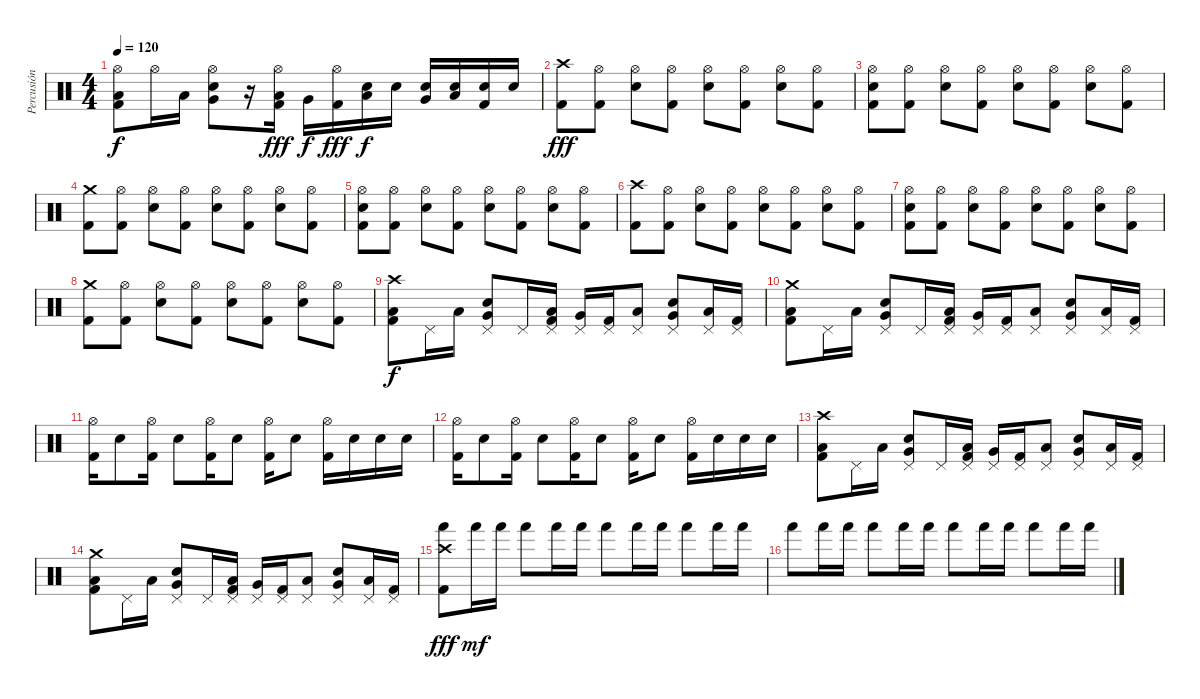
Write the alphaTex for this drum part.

\track ("Percusión" "Percusión") {instrument percussion}
\staff {score}
\articulation defaults
\ts (4 4)
\tempo 120
\clef neutral
\ks c
("Hi-Hat (open)" "Low Floor Tom (hit)" "Kick (hit) 2").8{dy f} "Hi-Hat (open)".16 "Low Floor Tom (hit)".16 ("Hi-Hat (open)" "Electric Snare (hit)" "Very Low Tom (hit)").8 r.16 ("Hi-Hat (open)" "Low Floor Tom (hit)" "Kick (hit) 2").16{dy fff} "Very Low Tom (hit)".16{dy f} ("Hi-Hat (open)" "Kick (hit) 2").16{dy fff} ("Electric Snare (hit)" "Low Floor Tom (hit)").16{dy f} "Electric Snare (hit)".16 ("Electric Snare (hit)" "Very Low Tom (hit)").16 ("Electric Snare (hit)" "Low Floor Tom (hit)").16 ("Electric Snare (hit)" "Kick (hit) 2").16 "Electric Snare (hit)".16 |
("Crash high (hit)" "Kick (hit) 2").8{dy fff} ("Hi-Hat (open)" "Kick (hit) 2").8 ("Hi-Hat (open)" "Electric Snare (hit)").8 ("Hi-Hat (open)" "Kick (hit) 2").8 ("Hi-Hat (open)" "Electric Snare (hit)").8 ("Hi-Hat (open)" "Kick (hit) 2").8 ("Hi-Hat (open)" "Electric Snare (hit)").8 ("Hi-Hat (open)" "Kick (hit) 2").8 |
("Hi-Hat (open)" "Electric Snare (hit)" "Kick (hit) 2").8 ("Hi-Hat (open)" "Kick (hit) 2").8 ("Hi-Hat (open)" "Electric Snare (hit)").8 ("Hi-Hat (open)" "Kick (hit) 2").8 ("Hi-Hat (open)" "Electric Snare (hit)").8 ("Hi-Hat (open)" "Kick (hit) 2").8 ("Hi-Hat (open)" "Electric Snare (hit)").8 ("Hi-Hat (open)" "Kick (hit) 2").8 |
("Crash medium (hit)" "Kick (hit) 2").8 ("Hi-Hat (open)" "Kick (hit) 2").8 ("Hi-Hat (open)" "Electric Snare (hit)").8 ("Hi-Hat (open)" "Kick (hit) 2").8 ("Hi-Hat (open)" "Electric Snare (hit)").8 ("Hi-Hat (open)" "Kick (hit) 2").8 ("Hi-Hat (open)" "Electric Snare (hit)").8 ("Hi-Hat (open)" "Kick (hit) 2").8 |
("Hi-Hat (open)" "Electric Snare (hit)" "Kick (hit) 2").8 ("Hi-Hat (open)" "Kick (hit) 2").8 ("Hi-Hat (open)" "Electric Snare (hit)").8 ("Hi-Hat (open)" "Kick (hit) 2").8 ("Hi-Hat (open)" "Electric Snare (hit)").8 ("Hi-Hat (open)" "Kick (hit) 2").8 ("Hi-Hat (open)" "Electric Snare (hit)").8 ("Hi-Hat (open)" "Kick (hit) 2").8 |
("Crash high (hit)" "Kick (hit) 2").8 ("Hi-Hat (open)" "Kick (hit) 2").8 ("Hi-Hat (open)" "Electric Snare (hit)").8 ("Hi-Hat (open)" "Kick (hit) 2").8 ("Hi-Hat (open)" "Electric Snare (hit)").8 ("Hi-Hat (open)" "Kick (hit) 2").8 ("Hi-Hat (open)" "Electric Snare (hit)").8 ("Hi-Hat (open)" "Kick (hit) 2").8 |
("Hi-Hat (open)" "Electric Snare (hit)" "Kick (hit) 2").8 ("Hi-Hat (open)" "Kick (hit) 2").8 ("Hi-Hat (open)" "Electric Snare (hit)").8 ("Hi-Hat (open)" "Kick (hit) 2").8 ("Hi-Hat (open)" "Electric Snare (hit)").8 ("Hi-Hat (open)" "Kick (hit) 2").8 ("Hi-Hat (open)" "Electric Snare (hit)").8 ("Hi-Hat (open)" "Kick (hit) 2").8 |
("Crash medium (hit)" "Kick (hit) 2").8 ("Hi-Hat (open)" "Kick (hit) 2").8 ("Hi-Hat (open)" "Electric Snare (hit)").8 ("Hi-Hat (open)" "Kick (hit) 2").8 ("Hi-Hat (open)" "Electric Snare (hit)").8 ("Hi-Hat (open)" "Kick (hit) 2").8 ("Hi-Hat (open)" "Electric Snare (hit)").8 ("Hi-Hat (open)" "Kick (hit) 2").8 |
("Crash high (hit)" "Low Floor Tom (hit)" "Kick (hit) 2").8{dy f} "Pedal Hi-Hat (hit)".16 "Low Floor Tom (hit)".16 ("Pedal Hi-Hat (hit)" "Electric Snare (hit)" "Very Low Tom (hit)").8 "Pedal Hi-Hat (hit)".16 ("Pedal Hi-Hat (hit)" "Low Floor Tom (hit)" "Kick (hit) 2").16 ("Pedal Hi-Hat (hit)" "Very Low Tom (hit)").16 ("Pedal Hi-Hat (hit)" "Kick (hit) 2").16 ("Pedal Hi-Hat (hit)" "Low Floor Tom (hit)").8 ("Pedal Hi-Hat (hit)" "Electric Snare (hit)" "Very Low Tom (hit)").8 ("Pedal Hi-Hat (hit)" "Low Floor Tom (hit)").16 ("Pedal Hi-Hat (hit)" "Kick (hit) 2").16 |
("Crash medium (hit)" "Low Floor Tom (hit)" "Kick (hit) 2").8 "Pedal Hi-Hat (hit)".16 "Low Floor Tom (hit)".16 ("Pedal Hi-Hat (hit)" "Electric Snare (hit)" "Very Low Tom (hit)").8 "Pedal Hi-Hat (hit)".16 ("Pedal Hi-Hat (hit)" "Low Floor Tom (hit)" "Kick (hit) 2").16 ("Pedal Hi-Hat (hit)" "Very Low Tom (hit)").16 ("Pedal Hi-Hat (hit)" "Kick (hit) 2").16 ("Pedal Hi-Hat (hit)" "Low Floor Tom (hit)").8 ("Pedal Hi-Hat (hit)" "Electric Snare (hit)" "Very Low Tom (hit)").8 ("Pedal Hi-Hat (hit)" "Low Floor Tom (hit)").16 ("Pedal Hi-Hat (hit)" "Kick (hit) 2").16 |
("Hi-Hat (open)" "Kick (hit) 2").16 "Electric Snare (hit)".8 ("Hi-Hat (open)" "Kick (hit) 2").16 "Electric Snare (hit)".8 ("Hi-Hat (open)" "Kick (hit) 2").16 "Electric Snare (hit)".8 ("Hi-Hat (open)" "Kick (hit) 2").16 "Electric Snare (hit)".8 ("Hi-Hat (open)" "Kick (hit) 2").16 "Electric Snare (hit)".16 "Electric Snare (hit)".16 "Electric Snare (hit)".16 |
("Hi-Hat (open)" "Kick (hit) 2").16 "Electric Snare (hit)".8 ("Hi-Hat (open)" "Kick (hit) 2").16 "Electric Snare (hit)".8 ("Hi-Hat (open)" "Kick (hit) 2").16 "Electric Snare (hit)".8 ("Hi-Hat (open)" "Kick (hit) 2").16 "Electric Snare (hit)".8 ("Hi-Hat (open)" "Kick (hit) 2").16 "Electric Snare (hit)".16 "Electric Snare (hit)".16 "Electric Snare (hit)".16 |
("Crash high (hit)" "Low Floor Tom (hit)" "Kick (hit) 2").8 "Pedal Hi-Hat (hit)".16 "Low Floor Tom (hit)".16 ("Pedal Hi-Hat (hit)" "Electric Snare (hit)" "Very Low Tom (hit)").8 "Pedal Hi-Hat (hit)".16 ("Pedal Hi-Hat (hit)" "Low Floor Tom (hit)" "Kick (hit) 2").16 ("Pedal Hi-Hat (hit)" "Very Low Tom (hit)").16 ("Pedal Hi-Hat (hit)" "Kick (hit) 2").16 ("Pedal Hi-Hat (hit)" "Low Floor Tom (hit)").8 ("Pedal Hi-Hat (hit)" "Electric Snare (hit)" "Very Low Tom (hit)").8 ("Pedal Hi-Hat (hit)" "Low Floor Tom (hit)").16 ("Pedal Hi-Hat (hit)" "Kick (hit) 2").16 |
("Crash medium (hit)" "Low Floor Tom (hit)" "Kick (hit) 2").8 "Pedal Hi-Hat (hit)".16 "Low Floor Tom (hit)".16 ("Pedal Hi-Hat (hit)" "Electric Snare (hit)" "Very Low Tom (hit)").8 "Pedal Hi-Hat (hit)".16 ("Pedal Hi-Hat (hit)" "Low Floor Tom (hit)" "Kick (hit) 2").16 ("Pedal Hi-Hat (hit)" "Very Low Tom (hit)").16 ("Pedal Hi-Hat (hit)" "Kick (hit) 2").16 ("Pedal Hi-Hat (hit)" "Low Floor Tom (hit)").8 ("Pedal Hi-Hat (hit)" "Electric Snare (hit)" "Very Low Tom (hit)").8 ("Pedal Hi-Hat (hit)" "Low Floor Tom (hit)").16 ("Pedal Hi-Hat (hit)" "Kick (hit) 2").16 |
("Crash high (hit)" "Hand (hit)" "Kick (hit) 2").8{dy fff} "Hand (hit)".16{dy mf} "Hand (hit)".16 "Hand (hit)".8 "Hand (hit)".16 "Hand (hit)".16 "Hand (hit)".8 "Hand (hit)".16 "Hand (hit)".16 "Hand (hit)".8 "Hand (hit)".16 "Hand (hit)".16 |
"Hand (hit)".8 "Hand (hit)".16 "Hand (hit)".16 "Hand (hit)".8 "Hand (hit)".16 "Hand (hit)".16 "Hand (hit)".8 "Hand (hit)".16 "Hand (hit)".16 "Hand (hit)".8 "Hand (hit)".16 "Hand (hit)".16
